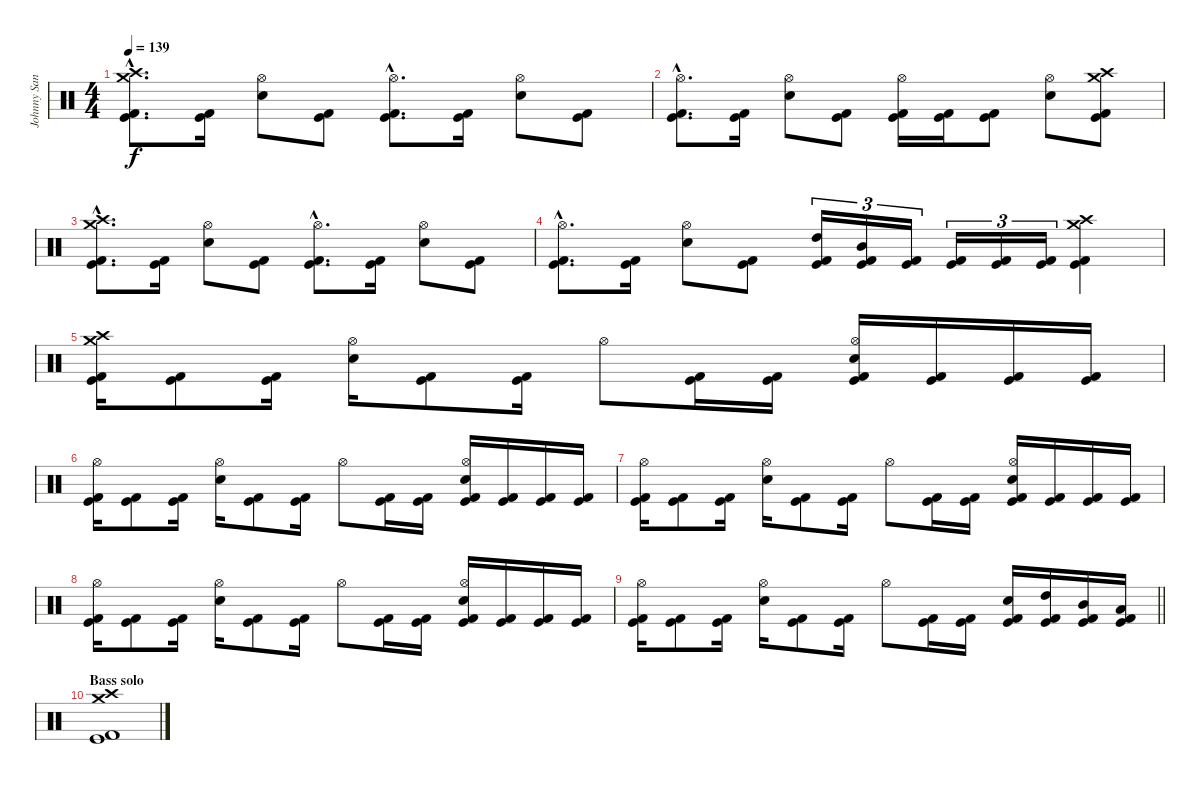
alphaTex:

\track ("Johnny Sandin" "Johnny San") {instrument percussion}
\staff {score}
\articulation defaults
\ts (4 4)
\tempo 139
\clef neutral
\ks c
("Crash medium (hit)"{hac} "Crash high (hit)"{hac} "Kick (hit) 2"{hac} "Kick (hit)"{hac}).8{d dy f} ("Kick (hit) 2" "Kick (hit)").16 ("Hi-Hat (open)" "Snare (hit) 2").8 ("Kick (hit) 2" "Kick (hit)").8 ("Hi-Hat (open)"{hac} "Kick (hit) 2"{hac} "Kick (hit)"{hac}).8{d} ("Kick (hit) 2" "Kick (hit)").16 ("Hi-Hat (open)" "Snare (hit) 2").8 ("Kick (hit) 2" "Kick (hit)").8 |
("Hi-Hat (open)"{hac} "Kick (hit) 2"{hac} "Kick (hit)"{hac}).8{d} ("Kick (hit) 2" "Kick (hit)").16 ("Hi-Hat (open)" "Snare (hit) 2").8 ("Kick (hit) 2" "Kick (hit)").8 ("Hi-Hat (open)" "Kick (hit) 2" "Kick (hit)").16 ("Kick (hit) 2" "Kick (hit)").16 ("Kick (hit) 2" "Kick (hit)").8 ("Hi-Hat (open)" "Snare (hit) 2").8 ("Crash medium (hit)" "Crash high (hit)" "Kick (hit) 2" "Kick (hit)").8 |
("Crash medium (hit)"{hac} "Crash high (hit)"{hac} "Kick (hit) 2"{hac} "Kick (hit)"{hac}).8{d} ("Kick (hit) 2" "Kick (hit)").16 ("Hi-Hat (open)" "Snare (hit) 2").8 ("Kick (hit) 2" "Kick (hit)").8 ("Hi-Hat (open)"{hac} "Kick (hit) 2"{hac} "Kick (hit)"{hac}).8{d} ("Kick (hit) 2" "Kick (hit)").16 ("Hi-Hat (open)" "Snare (hit) 2").8 ("Kick (hit) 2" "Kick (hit)").8 |
("Hi-Hat (open)"{hac} "Kick (hit) 2"{hac} "Kick (hit)"{hac}).8{d} ("Kick (hit) 2" "Kick (hit)").16 ("Hi-Hat (open)" "Snare (hit) 2").8 ("Kick (hit) 2" "Kick (hit)").8 ("High Tom (hit)" "Kick (hit) 2" "Kick (hit)").16{tu (3 2)} ("Mid Tom (hit)" "Kick (hit) 2" "Kick (hit)").16{tu (3 2)} ("Kick (hit) 2" "Kick (hit)").16{tu (3 2)} ("Kick (hit) 2" "Kick (hit)").16{tu (3 2)} ("Kick (hit) 2" "Kick (hit)").16{tu (3 2)} ("Kick (hit) 2" "Kick (hit)").16{tu (3 2)} ("Crash medium (hit)" "Crash high (hit)" "Kick (hit) 2" "Kick (hit)").4 |
("Crash medium (hit)" "Crash high (hit)" "Kick (hit) 2" "Kick (hit)").16 ("Kick (hit) 2" "Kick (hit)").8 ("Kick (hit) 2" "Kick (hit)").16 ("Hi-Hat (open)" "Snare (hit) 2").16 ("Kick (hit) 2" "Kick (hit)").8 ("Kick (hit) 2" "Kick (hit)").16 "Hi-Hat (open)".8 ("Kick (hit) 2" "Kick (hit)").16 ("Kick (hit) 2" "Kick (hit)").16 ("Hi-Hat (open)" "Snare (hit) 2" "Kick (hit) 2" "Kick (hit)").16 ("Kick (hit) 2" "Kick (hit)").16 ("Kick (hit) 2" "Kick (hit)").16 ("Kick (hit) 2" "Kick (hit)").16 |
("Hi-Hat (open)" "Kick (hit) 2" "Kick (hit)").16 ("Kick (hit) 2" "Kick (hit)").8 ("Kick (hit) 2" "Kick (hit)").16 ("Hi-Hat (open)" "Snare (hit) 2").16 ("Kick (hit) 2" "Kick (hit)").8 ("Kick (hit) 2" "Kick (hit)").16 "Hi-Hat (open)".8 ("Kick (hit) 2" "Kick (hit)").16 ("Kick (hit) 2" "Kick (hit)").16 ("Hi-Hat (open)" "Snare (hit) 2" "Kick (hit) 2" "Kick (hit)").16 ("Kick (hit) 2" "Kick (hit)").16 ("Kick (hit) 2" "Kick (hit)").16 ("Kick (hit) 2" "Kick (hit)").16 |
("Hi-Hat (open)" "Kick (hit) 2" "Kick (hit)").16 ("Kick (hit) 2" "Kick (hit)").8 ("Kick (hit) 2" "Kick (hit)").16 ("Hi-Hat (open)" "Snare (hit) 2").16 ("Kick (hit) 2" "Kick (hit)").8 ("Kick (hit) 2" "Kick (hit)").16 "Hi-Hat (open)".8 ("Kick (hit) 2" "Kick (hit)").16 ("Kick (hit) 2" "Kick (hit)").16 ("Hi-Hat (open)" "Snare (hit) 2" "Kick (hit) 2" "Kick (hit)").16 ("Kick (hit) 2" "Kick (hit)").16 ("Kick (hit) 2" "Kick (hit)").16 ("Kick (hit) 2" "Kick (hit)").16 |
("Hi-Hat (open)" "Kick (hit) 2" "Kick (hit)").16 ("Kick (hit) 2" "Kick (hit)").8 ("Kick (hit) 2" "Kick (hit)").16 ("Hi-Hat (open)" "Snare (hit) 2").16 ("Kick (hit) 2" "Kick (hit)").8 ("Kick (hit) 2" "Kick (hit)").16 "Hi-Hat (open)".8 ("Kick (hit) 2" "Kick (hit)").16 ("Kick (hit) 2" "Kick (hit)").16 ("Hi-Hat (open)" "Snare (hit) 2" "Kick (hit) 2" "Kick (hit)").16 ("Kick (hit) 2" "Kick (hit)").16 ("Kick (hit) 2" "Kick (hit)").16 ("Kick (hit) 2" "Kick (hit)").16 |
\barLineRight lightlight
("Hi-Hat (open)" "Kick (hit) 2" "Kick (hit)").16 ("Kick (hit) 2" "Kick (hit)").8 ("Kick (hit) 2" "Kick (hit)").16 ("Hi-Hat (open)" "Snare (hit) 2").16 ("Kick (hit) 2" "Kick (hit)").8 ("Kick (hit) 2" "Kick (hit)").16 "Hi-Hat (open)".8 ("Kick (hit) 2" "Kick (hit)").16 ("Kick (hit) 2" "Kick (hit)").16 ("Snare (hit) 2" "Kick (hit) 2" "Kick (hit)").16 ("High Tom (hit)" "Kick (hit) 2" "Kick (hit)").16 ("Mid Tom (hit)" "Kick (hit) 2" "Kick (hit)").16 ("Low Tom (hit)" "Kick (hit) 2" "Kick (hit)").16 |
\section ("" "Bass solo")
("Crash medium (hit)" "Crash high (hit)" "Kick (hit) 2" "Kick (hit)").1
